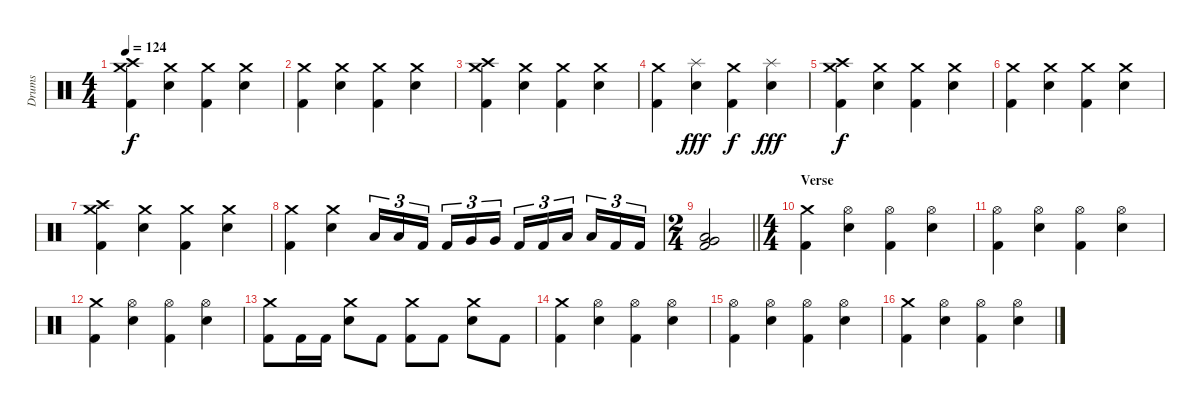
\track ("Drums" "Drums") {instrument percussion}
\staff {score}
\articulation defaults
\ts (4 4)
\tempo 124
\clef neutral
\ks c
("Crash medium (hit)" "Crash high (hit)" "Kick (hit) 2").4{dy f} ("Crash medium (hit)" "Electric Snare (hit)").4 ("Crash medium (hit)" "Kick (hit) 2").4 ("Crash medium (hit)" "Electric Snare (hit)").4 |
("Crash medium (hit)" "Kick (hit) 2").4 ("Crash medium (hit)" "Electric Snare (hit)").4 ("Crash medium (hit)" "Kick (hit) 2").4 ("Crash medium (hit)" "Electric Snare (hit)").4 |
("Crash medium (hit)" "Crash high (hit)" "Kick (hit) 2").4 ("Crash medium (hit)" "Electric Snare (hit)").4 ("Crash medium (hit)" "Kick (hit) 2").4 ("Crash medium (hit)" "Electric Snare (hit)").4 |
("Crash medium (hit)" "Kick (hit) 2").4 ("Splash (hit)" "Electric Snare (hit)").4{dy fff} ("Crash medium (hit)" "Kick (hit) 2").4{dy f} ("Splash (hit)" "Electric Snare (hit)").4{dy fff} |
("Crash medium (hit)" "Crash high (hit)" "Kick (hit) 2").4{dy f} ("Crash medium (hit)" "Electric Snare (hit)").4 ("Crash medium (hit)" "Kick (hit) 2").4 ("Crash medium (hit)" "Electric Snare (hit)").4 |
("Crash medium (hit)" "Kick (hit) 2").4 ("Crash medium (hit)" "Electric Snare (hit)").4 ("Crash medium (hit)" "Kick (hit) 2").4 ("Crash medium (hit)" "Electric Snare (hit)").4 |
("Crash medium (hit)" "Crash high (hit)" "Kick (hit) 2").4 ("Crash medium (hit)" "Electric Snare (hit)").4 ("Crash medium (hit)" "Kick (hit) 2").4 ("Crash medium (hit)" "Electric Snare (hit)").4 |
("Crash medium (hit)" "Kick (hit) 2").4 ("Crash medium (hit)" "Electric Snare (hit)").4 "Low Tom (hit)".16{tu (3 2)} "Low Tom (hit)".16{tu (3 2)} "Kick (hit) 2".16{tu (3 2) beam splitsecondary} "Kick (hit) 2".16{tu (3 2)} "Very Low Tom (hit)".16{tu (3 2)} "Very Low Tom (hit)".16{tu (3 2)} "Kick (hit) 2".16{tu (3 2)} "Kick (hit) 2".16{tu (3 2)} "Low Floor Tom (hit)".16{tu (3 2) beam splitsecondary} "Low Floor Tom (hit)".16{tu (3 2)} "Kick (hit) 2".16{tu (3 2)} "Kick (hit) 2".16{tu (3 2)} |
\ts (2 4)
\barLineRight lightlight
("Very Low Tom (hit)" "Low Floor Tom (hit)" "Kick (hit) 2").2 |
\ts (4 4)
\section ("" "Verse")
("Crash medium (hit)" "Kick (hit) 2").4 ("Hi-Hat (open)" "Electric Snare (hit)").4 ("Hi-Hat (open)" "Kick (hit) 2").4 ("Hi-Hat (open)" "Electric Snare (hit)").4 |
("Hi-Hat (open)" "Kick (hit) 2").4 ("Hi-Hat (open)" "Electric Snare (hit)").4 ("Hi-Hat (open)" "Kick (hit) 2").4 ("Hi-Hat (open)" "Electric Snare (hit)").4 |
("Crash medium (hit)" "Kick (hit) 2").4 ("Hi-Hat (open)" "Electric Snare (hit)").4 ("Hi-Hat (open)" "Kick (hit) 2").4 ("Hi-Hat (open)" "Electric Snare (hit)").4 |
("Crash medium (hit)" "Kick (hit) 2").8 "Kick (hit) 2".16 "Kick (hit) 2".16 ("Crash medium (hit)" "Electric Snare (hit)").8 "Kick (hit) 2".8 ("Crash medium (hit)" "Kick (hit) 2").8 "Kick (hit) 2".8 ("Crash medium (hit)" "Electric Snare (hit)").8 "Kick (hit) 2".8 |
("Crash medium (hit)" "Kick (hit) 2").4 ("Hi-Hat (open)" "Electric Snare (hit)").4 ("Hi-Hat (open)" "Kick (hit) 2").4 ("Hi-Hat (open)" "Electric Snare (hit)").4 |
("Hi-Hat (open)" "Kick (hit) 2").4 ("Hi-Hat (open)" "Electric Snare (hit)").4 ("Hi-Hat (open)" "Kick (hit) 2").4 ("Hi-Hat (open)" "Electric Snare (hit)").4 |
("Crash medium (hit)" "Kick (hit) 2").4 ("Hi-Hat (open)" "Electric Snare (hit)").4 ("Hi-Hat (open)" "Kick (hit) 2").4 ("Hi-Hat (open)" "Electric Snare (hit)").4
